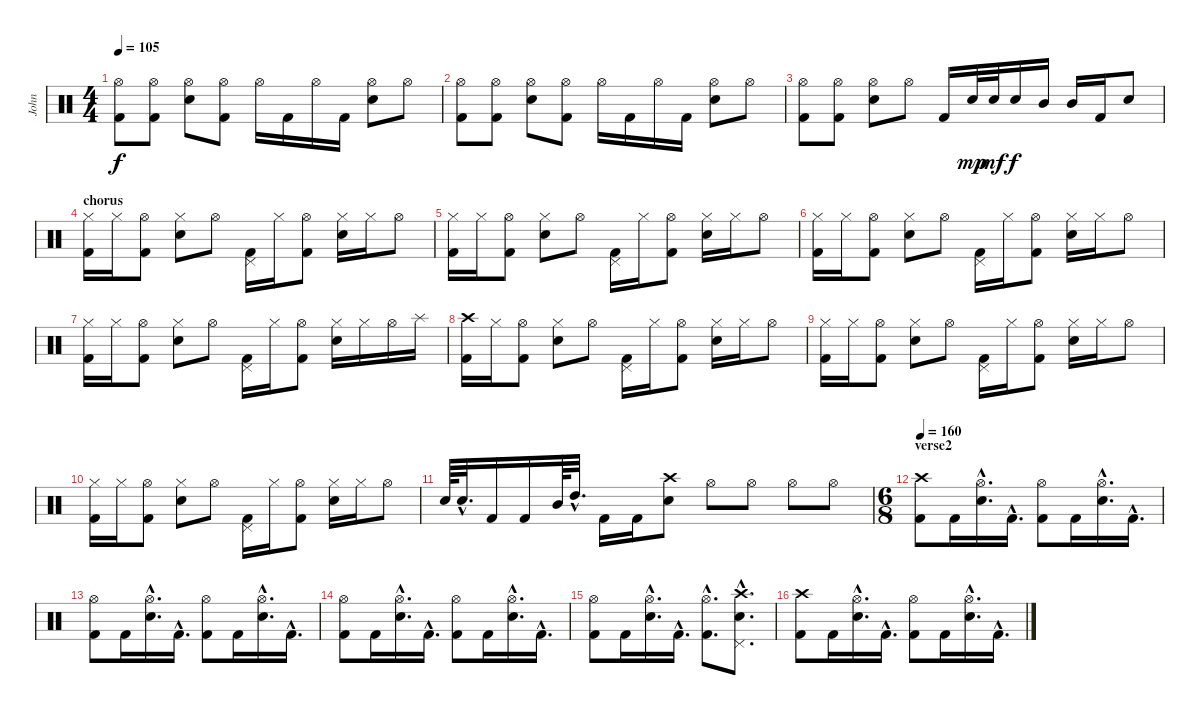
\track ("John" "John") {instrument percussion}
\staff {score}
\articulation defaults
\ts (4 4)
\tempo 105
\clef neutral
\ks c
("Hi-Hat (open)" "Kick (hit) 2").8{dy f} ("Hi-Hat (open)" "Kick (hit) 2").8 ("Hi-Hat (open)" "Electric Snare (hit)").8 ("Hi-Hat (open)" "Kick (hit) 2").8 "Hi-Hat (open)".16 "Kick (hit) 2".16 "Hi-Hat (open)".16 "Kick (hit) 2".16 ("Hi-Hat (open)" "Electric Snare (hit)").8 "Hi-Hat (open)".8 |
("Hi-Hat (open)" "Kick (hit) 2").8 ("Hi-Hat (open)" "Kick (hit) 2").8 ("Hi-Hat (open)" "Electric Snare (hit)").8 ("Hi-Hat (open)" "Kick (hit) 2").8 "Hi-Hat (open)".16 "Kick (hit) 2".16 "Hi-Hat (open)".16 "Kick (hit) 2".16 ("Hi-Hat (open)" "Electric Snare (hit)").8 "Hi-Hat (open)".8 |
("Hi-Hat (open)" "Kick (hit) 2").8 ("Hi-Hat (open)" "Kick (hit) 2").8 ("Hi-Hat (open)" "Electric Snare (hit)").8 "Hi-Hat (open)".8 "Kick (hit) 2".16 "Electric Snare (hit)".32{dy mp} "Electric Snare (hit)".32{dy mf} "Electric Snare (hit)".16{dy f} "Mid Tom (hit)".16 "Mid Tom (hit)".16 "Kick (hit) 2".16 "Electric Snare (hit)".8 |
\section ("" "chorus")
("Hi-Hat (closed)" "Kick (hit) 2").16 "Hi-Hat (closed)".16 ("Hi-Hat (open)" "Kick (hit) 2").8 ("Hi-Hat (closed)" "Electric Snare (hit)").8 "Hi-Hat (open)".8 ("Pedal Hi-Hat (hit)" "Kick (hit) 2").16 "Hi-Hat (closed)".16 ("Hi-Hat (open)" "Kick (hit) 2").8 ("Hi-Hat (closed)" "Electric Snare (hit)").16 "Hi-Hat (closed)".16 "Hi-Hat (open)".8 |
("Hi-Hat (closed)" "Kick (hit) 2").16 "Hi-Hat (closed)".16 ("Hi-Hat (open)" "Kick (hit) 2").8 ("Hi-Hat (closed)" "Electric Snare (hit)").8 "Hi-Hat (open)".8 ("Pedal Hi-Hat (hit)" "Kick (hit) 2").16 "Hi-Hat (closed)".16 ("Hi-Hat (open)" "Kick (hit) 2").8 ("Hi-Hat (closed)" "Electric Snare (hit)").16 "Hi-Hat (closed)".16 "Hi-Hat (open)".8 |
("Hi-Hat (closed)" "Kick (hit) 2").16 "Hi-Hat (closed)".16 ("Hi-Hat (open)" "Kick (hit) 2").8 ("Hi-Hat (closed)" "Electric Snare (hit)").8 "Hi-Hat (open)".8 ("Pedal Hi-Hat (hit)" "Kick (hit) 2").16 "Hi-Hat (closed)".16 ("Hi-Hat (open)" "Kick (hit) 2").8 ("Hi-Hat (closed)" "Electric Snare (hit)").16 "Hi-Hat (closed)".16 "Hi-Hat (open)".8 |
("Hi-Hat (closed)" "Kick (hit) 2").16 "Hi-Hat (closed)".16 ("Hi-Hat (open)" "Kick (hit) 2").8 ("Hi-Hat (closed)" "Electric Snare (hit)").8 "Hi-Hat (open)".8 ("Pedal Hi-Hat (hit)" "Kick (hit) 2").16 "Hi-Hat (closed)".16 ("Hi-Hat (open)" "Kick (hit) 2").8 ("Hi-Hat (closed)" "Electric Snare (hit)").16 "Hi-Hat (closed)".16 "Hi-Hat (open)".16 "Splash (hit)".16 |
("Crash high (hit)" "Kick (hit) 2").16 "Hi-Hat (closed)".16 ("Hi-Hat (open)" "Kick (hit) 2").8 ("Hi-Hat (closed)" "Electric Snare (hit)").8 "Hi-Hat (open)".8 ("Pedal Hi-Hat (hit)" "Kick (hit) 2").16 "Hi-Hat (closed)".16 ("Hi-Hat (open)" "Kick (hit) 2").8 ("Hi-Hat (closed)" "Electric Snare (hit)").16 "Hi-Hat (closed)".16 "Hi-Hat (open)".8 |
("Hi-Hat (closed)" "Kick (hit) 2").16 "Hi-Hat (closed)".16 ("Hi-Hat (open)" "Kick (hit) 2").8 ("Hi-Hat (closed)" "Electric Snare (hit)").8 "Hi-Hat (open)".8 ("Pedal Hi-Hat (hit)" "Kick (hit) 2").16 "Hi-Hat (closed)".16 ("Hi-Hat (open)" "Kick (hit) 2").8 ("Hi-Hat (closed)" "Electric Snare (hit)").16 "Hi-Hat (closed)".16 "Hi-Hat (open)".8 |
("Hi-Hat (closed)" "Kick (hit) 2").16 "Hi-Hat (closed)".16 ("Hi-Hat (open)" "Kick (hit) 2").8 ("Hi-Hat (closed)" "Electric Snare (hit)").8 "Hi-Hat (open)".8 ("Pedal Hi-Hat (hit)" "Kick (hit) 2").16 "Hi-Hat (closed)".16 ("Hi-Hat (open)" "Kick (hit) 2").8 ("Hi-Hat (closed)" "Electric Snare (hit)").16 "Hi-Hat (closed)".16 "Hi-Hat (open)".8 |
"Electric Snare (hit)".64 "Electric Snare (hit)"{hac}.32{d} "Kick (hit) 2".16 "Kick (hit) 2".16 "Mid Tom (hit)".64 "High Tom (hit)"{hac}.32{d} "Kick (hit) 2".16 "Kick (hit) 2".16 ("Crash high (hit)" "Electric Snare (hit)").8 "Hi-Hat (open)".8 "Hi-Hat (open)".8 "Hi-Hat (open)".8 "Hi-Hat (open)".8 |
\ts (6 8)
\section ("" "verse2")
\tempo 160
("Crash high (hit)" "Kick (hit) 2").8 "Kick (hit) 2".16 ("Hi-Hat (open)"{hac} "Electric Snare (hit)"{hac}).16{d} "Kick (hit) 2"{hac}.16{d} ("Hi-Hat (open)" "Kick (hit) 2").8 "Kick (hit) 2".16 ("Hi-Hat (open)"{hac} "Electric Snare (hit)"{hac}).16{d} "Kick (hit) 2"{hac}.16{d} |
("Hi-Hat (open)" "Kick (hit) 2").8 "Kick (hit) 2".16 ("Hi-Hat (open)"{hac} "Electric Snare (hit)"{hac}).16{d} "Kick (hit) 2"{hac}.16{d} ("Hi-Hat (open)" "Kick (hit) 2").8 "Kick (hit) 2".16 ("Hi-Hat (open)"{hac} "Electric Snare (hit)"{hac}).16{d} "Kick (hit) 2"{hac}.16{d} |
("Hi-Hat (open)" "Kick (hit) 2").8 "Kick (hit) 2".16 ("Hi-Hat (open)"{hac} "Electric Snare (hit)"{hac}).16{d} "Kick (hit) 2"{hac}.16{d} ("Hi-Hat (open)" "Kick (hit) 2").8 "Kick (hit) 2".16 ("Hi-Hat (open)"{hac} "Electric Snare (hit)"{hac}).16{d} "Kick (hit) 2"{hac}.16{d} |
("Hi-Hat (open)" "Kick (hit) 2").8 "Kick (hit) 2".16 ("Hi-Hat (open)"{hac} "Electric Snare (hit)"{hac}).16{d} "Kick (hit) 2"{hac}.16{d} ("Hi-Hat (open)"{hac} "Kick (hit) 2"{hac}).8{d} ("Crash high (hit)"{hac} "Pedal Hi-Hat (hit)"{hac} "Electric Snare (hit)"{hac}).8{d} |
("Crash high (hit)" "Kick (hit) 2").8 "Kick (hit) 2".16 ("Hi-Hat (open)"{hac} "Electric Snare (hit)"{hac}).16{d} "Kick (hit) 2"{hac}.16{d} ("Hi-Hat (open)" "Kick (hit) 2").8 "Kick (hit) 2".16 ("Hi-Hat (open)"{hac} "Electric Snare (hit)"{hac}).16{d} "Kick (hit) 2"{hac}.16{d}
